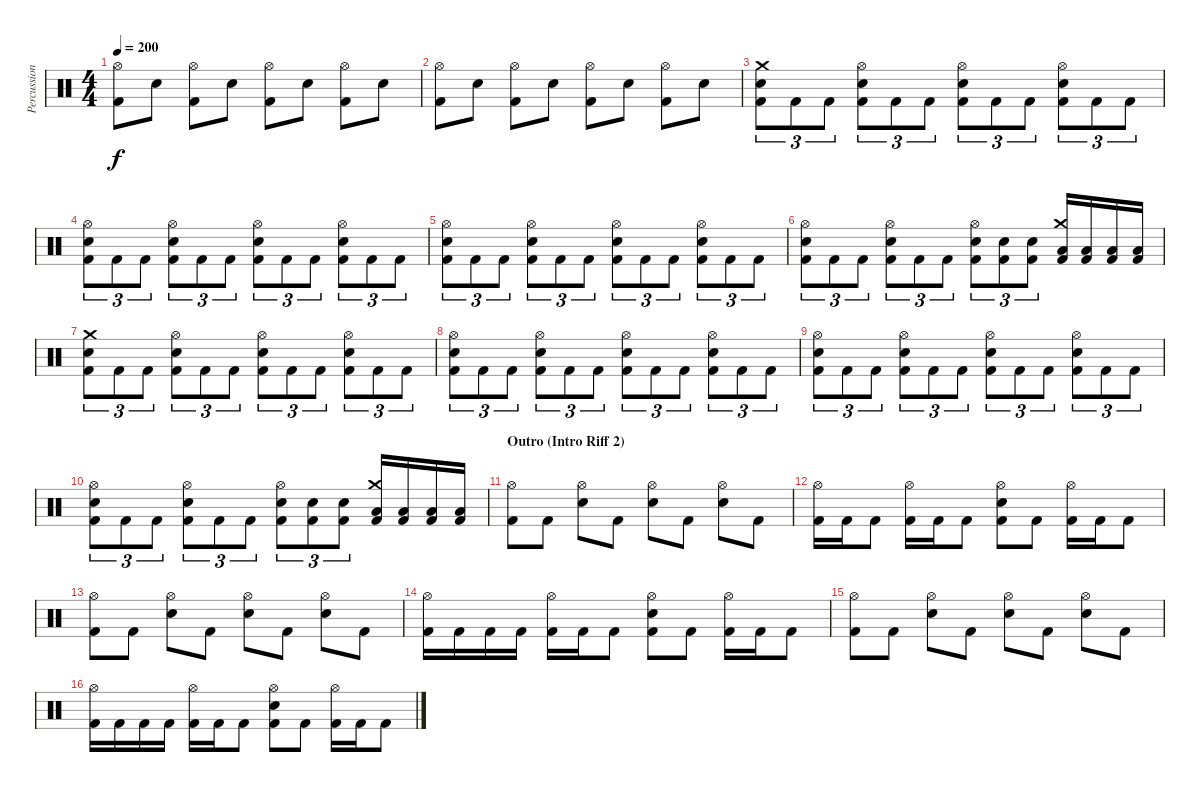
\track ("Percussion" "Percussion") {instrument percussion}
\staff {score}
\articulation defaults
\ts (4 4)
\tempo 200
\clef neutral
\ks c
("Hi-Hat (open)" "Kick (hit) 2").8{dy f} "Electric Snare (hit)".8 ("Hi-Hat (open)" "Kick (hit) 2").8 "Electric Snare (hit)".8 ("Hi-Hat (open)" "Kick (hit) 2").8 "Electric Snare (hit)".8 ("Hi-Hat (open)" "Kick (hit) 2").8 "Electric Snare (hit)".8 |
("Hi-Hat (open)" "Kick (hit) 2").8 "Electric Snare (hit)".8 ("Hi-Hat (open)" "Kick (hit) 2").8 "Electric Snare (hit)".8 ("Hi-Hat (open)" "Kick (hit) 2").8 "Electric Snare (hit)".8 ("Hi-Hat (open)" "Kick (hit) 2").8 "Electric Snare (hit)".8 |
("Crash medium (hit)" "Electric Snare (hit)" "Kick (hit) 2").8{tu (3 2)} "Kick (hit) 2".8{tu (3 2)} "Kick (hit) 2".8{tu (3 2)} ("Hi-Hat (open)" "Electric Snare (hit)" "Kick (hit) 2").8{tu (3 2)} "Kick (hit) 2".8{tu (3 2)} "Kick (hit) 2".8{tu (3 2)} ("Hi-Hat (open)" "Electric Snare (hit)" "Kick (hit) 2").8{tu (3 2)} "Kick (hit) 2".8{tu (3 2)} "Kick (hit) 2".8{tu (3 2)} ("Hi-Hat (open)" "Electric Snare (hit)" "Kick (hit) 2").8{tu (3 2)} "Kick (hit) 2".8{tu (3 2)} "Kick (hit) 2".8{tu (3 2)} |
("Hi-Hat (open)" "Electric Snare (hit)" "Kick (hit) 2").8{tu (3 2)} "Kick (hit) 2".8{tu (3 2)} "Kick (hit) 2".8{tu (3 2)} ("Hi-Hat (open)" "Electric Snare (hit)" "Kick (hit) 2").8{tu (3 2)} "Kick (hit) 2".8{tu (3 2)} "Kick (hit) 2".8{tu (3 2)} ("Hi-Hat (open)" "Electric Snare (hit)" "Kick (hit) 2").8{tu (3 2)} "Kick (hit) 2".8{tu (3 2)} "Kick (hit) 2".8{tu (3 2)} ("Hi-Hat (open)" "Electric Snare (hit)" "Kick (hit) 2").8{tu (3 2)} "Kick (hit) 2".8{tu (3 2)} "Kick (hit) 2".8{tu (3 2)} |
("Hi-Hat (open)" "Electric Snare (hit)" "Kick (hit) 2").8{tu (3 2)} "Kick (hit) 2".8{tu (3 2)} "Kick (hit) 2".8{tu (3 2)} ("Hi-Hat (open)" "Electric Snare (hit)" "Kick (hit) 2").8{tu (3 2)} "Kick (hit) 2".8{tu (3 2)} "Kick (hit) 2".8{tu (3 2)} ("Hi-Hat (open)" "Electric Snare (hit)" "Kick (hit) 2").8{tu (3 2)} "Kick (hit) 2".8{tu (3 2)} "Kick (hit) 2".8{tu (3 2)} ("Hi-Hat (open)" "Electric Snare (hit)" "Kick (hit) 2").8{tu (3 2)} "Kick (hit) 2".8{tu (3 2)} "Kick (hit) 2".8{tu (3 2)} |
("Hi-Hat (open)" "Electric Snare (hit)" "Kick (hit) 2").8{tu (3 2)} "Kick (hit) 2".8{tu (3 2)} "Kick (hit) 2".8{tu (3 2)} ("Hi-Hat (open)" "Electric Snare (hit)" "Kick (hit) 2").8{tu (3 2)} "Kick (hit) 2".8{tu (3 2)} "Kick (hit) 2".8{tu (3 2)} ("Hi-Hat (open)" "Electric Snare (hit)" "Kick (hit) 2").8{tu (3 2)} ("Electric Snare (hit)" "Kick (hit) 2").8{tu (3 2)} ("Electric Snare (hit)" "Kick (hit) 2").8{tu (3 2)} ("Crash medium (hit)" "Low Floor Tom (hit)" "Kick (hit) 2").16 ("Low Floor Tom (hit)" "Kick (hit) 2").16 ("Low Floor Tom (hit)" "Kick (hit) 2").16 ("Low Floor Tom (hit)" "Kick (hit) 2").16 |
("Crash medium (hit)" "Electric Snare (hit)" "Kick (hit) 2").8{tu (3 2)} "Kick (hit) 2".8{tu (3 2)} "Kick (hit) 2".8{tu (3 2)} ("Hi-Hat (open)" "Electric Snare (hit)" "Kick (hit) 2").8{tu (3 2)} "Kick (hit) 2".8{tu (3 2)} "Kick (hit) 2".8{tu (3 2)} ("Hi-Hat (open)" "Electric Snare (hit)" "Kick (hit) 2").8{tu (3 2)} "Kick (hit) 2".8{tu (3 2)} "Kick (hit) 2".8{tu (3 2)} ("Hi-Hat (open)" "Electric Snare (hit)" "Kick (hit) 2").8{tu (3 2)} "Kick (hit) 2".8{tu (3 2)} "Kick (hit) 2".8{tu (3 2)} |
("Hi-Hat (open)" "Electric Snare (hit)" "Kick (hit) 2").8{tu (3 2)} "Kick (hit) 2".8{tu (3 2)} "Kick (hit) 2".8{tu (3 2)} ("Hi-Hat (open)" "Electric Snare (hit)" "Kick (hit) 2").8{tu (3 2)} "Kick (hit) 2".8{tu (3 2)} "Kick (hit) 2".8{tu (3 2)} ("Hi-Hat (open)" "Electric Snare (hit)" "Kick (hit) 2").8{tu (3 2)} "Kick (hit) 2".8{tu (3 2)} "Kick (hit) 2".8{tu (3 2)} ("Hi-Hat (open)" "Electric Snare (hit)" "Kick (hit) 2").8{tu (3 2)} "Kick (hit) 2".8{tu (3 2)} "Kick (hit) 2".8{tu (3 2)} |
("Hi-Hat (open)" "Electric Snare (hit)" "Kick (hit) 2").8{tu (3 2)} "Kick (hit) 2".8{tu (3 2)} "Kick (hit) 2".8{tu (3 2)} ("Hi-Hat (open)" "Electric Snare (hit)" "Kick (hit) 2").8{tu (3 2)} "Kick (hit) 2".8{tu (3 2)} "Kick (hit) 2".8{tu (3 2)} ("Hi-Hat (open)" "Electric Snare (hit)" "Kick (hit) 2").8{tu (3 2)} "Kick (hit) 2".8{tu (3 2)} "Kick (hit) 2".8{tu (3 2)} ("Hi-Hat (open)" "Electric Snare (hit)" "Kick (hit) 2").8{tu (3 2)} "Kick (hit) 2".8{tu (3 2)} "Kick (hit) 2".8{tu (3 2)} |
("Hi-Hat (open)" "Electric Snare (hit)" "Kick (hit) 2").8{tu (3 2)} "Kick (hit) 2".8{tu (3 2)} "Kick (hit) 2".8{tu (3 2)} ("Hi-Hat (open)" "Electric Snare (hit)" "Kick (hit) 2").8{tu (3 2)} "Kick (hit) 2".8{tu (3 2)} "Kick (hit) 2".8{tu (3 2)} ("Hi-Hat (open)" "Electric Snare (hit)" "Kick (hit) 2").8{tu (3 2)} ("Electric Snare (hit)" "Kick (hit) 2").8{tu (3 2)} ("Electric Snare (hit)" "Kick (hit) 2").8{tu (3 2)} ("Crash medium (hit)" "Low Floor Tom (hit)" "Kick (hit) 2").16 ("Low Floor Tom (hit)" "Kick (hit) 2").16 ("Low Floor Tom (hit)" "Kick (hit) 2").16 ("Low Floor Tom (hit)" "Kick (hit) 2").16 |
\section ("" "Outro (Intro Riff 2)")
("Hi-Hat (open)" "Kick (hit) 2").8 "Kick (hit) 2".8 ("Hi-Hat (open)" "Electric Snare (hit)").8 "Kick (hit) 2".8 ("Hi-Hat (open)" "Electric Snare (hit)").8 "Kick (hit) 2".8 ("Hi-Hat (open)" "Electric Snare (hit)").8 "Kick (hit) 2".8 |
("Hi-Hat (open)" "Kick (hit) 2").16 "Kick (hit) 2".16 "Kick (hit) 2".8 ("Hi-Hat (open)" "Kick (hit) 2").16 "Kick (hit) 2".16 "Kick (hit) 2".8 ("Hi-Hat (open)" "Electric Snare (hit)" "Kick (hit) 2").8 "Kick (hit) 2".8 ("Hi-Hat (open)" "Kick (hit) 2").16 "Kick (hit) 2".16 "Kick (hit) 2".8 |
("Hi-Hat (open)" "Kick (hit) 2").8 "Kick (hit) 2".8 ("Hi-Hat (open)" "Electric Snare (hit)").8 "Kick (hit) 2".8 ("Hi-Hat (open)" "Electric Snare (hit)").8 "Kick (hit) 2".8 ("Hi-Hat (open)" "Electric Snare (hit)").8 "Kick (hit) 2".8 |
("Hi-Hat (open)" "Kick (hit) 2").16 "Kick (hit) 2".16 "Kick (hit) 2".16 "Kick (hit) 2".16 ("Hi-Hat (open)" "Kick (hit) 2").16 "Kick (hit) 2".16 "Kick (hit) 2".8 ("Hi-Hat (open)" "Electric Snare (hit)" "Kick (hit) 2").8 "Kick (hit) 2".8 ("Hi-Hat (open)" "Kick (hit) 2").16 "Kick (hit) 2".16 "Kick (hit) 2".8 |
("Hi-Hat (open)" "Kick (hit) 2").8 "Kick (hit) 2".8 ("Hi-Hat (open)" "Electric Snare (hit)").8 "Kick (hit) 2".8 ("Hi-Hat (open)" "Electric Snare (hit)").8 "Kick (hit) 2".8 ("Hi-Hat (open)" "Electric Snare (hit)").8 "Kick (hit) 2".8 |
("Hi-Hat (open)" "Kick (hit) 2").16 "Kick (hit) 2".16 "Kick (hit) 2".16 "Kick (hit) 2".16 ("Hi-Hat (open)" "Kick (hit) 2").16 "Kick (hit) 2".16 "Kick (hit) 2".8 ("Hi-Hat (open)" "Electric Snare (hit)" "Kick (hit) 2").8 "Kick (hit) 2".8 ("Hi-Hat (open)" "Kick (hit) 2").16 "Kick (hit) 2".16 "Kick (hit) 2".8
